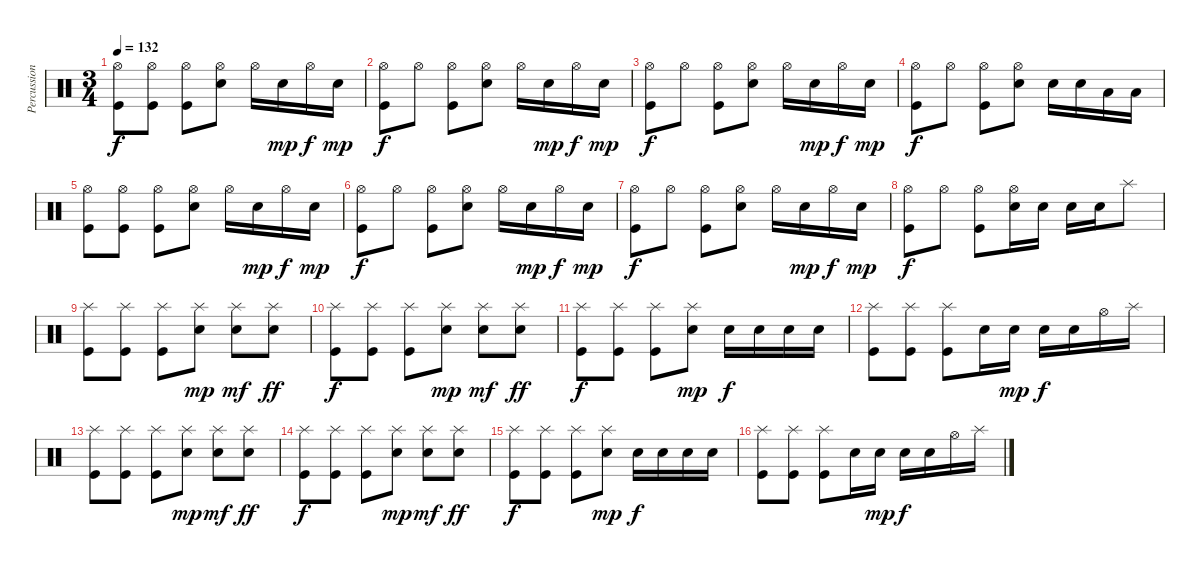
\track ("Percussion" "Percussion") {instrument percussion}
\staff {score}
\articulation defaults
\ts (3 4)
\tempo 132
\clef neutral
\ks c
("Hi-Hat (open)" "Kick (hit)").8{dy f} ("Hi-Hat (open)" "Kick (hit)").8 ("Hi-Hat (open)" "Kick (hit)").8 ("Hi-Hat (open)" "Snare (hit) 2").8 "Hi-Hat (open)".16 "Snare (hit) 2".16{dy mp} "Hi-Hat (open)".16{dy f} "Snare (hit) 2".16{dy mp} |
("Hi-Hat (open)" "Kick (hit)").8{dy f} "Hi-Hat (open)".8 ("Hi-Hat (open)" "Kick (hit)").8 ("Hi-Hat (open)" "Snare (hit) 2").8 "Hi-Hat (open)".16 "Snare (hit) 2".16{dy mp} "Hi-Hat (open)".16{dy f} "Snare (hit) 2".16{dy mp} |
("Hi-Hat (open)" "Kick (hit)").8{dy f} "Hi-Hat (open)".8 ("Hi-Hat (open)" "Kick (hit)").8 ("Hi-Hat (open)" "Snare (hit) 2").8 "Hi-Hat (open)".16 "Snare (hit) 2".16{dy mp} "Hi-Hat (open)".16{dy f} "Snare (hit) 2".16{dy mp} |
("Hi-Hat (open)" "Kick (hit)").8{dy f} "Hi-Hat (open)".8 ("Hi-Hat (open)" "Kick (hit)").8 ("Hi-Hat (open)" "Snare (hit) 2").8 "Snare (hit) 2".16 "Snare (hit) 2".16 "Low Tom (hit)".16 "Low Tom (hit)".16 |
("Hi-Hat (open)" "Kick (hit)").8 ("Hi-Hat (open)" "Kick (hit)").8 ("Hi-Hat (open)" "Kick (hit)").8 ("Hi-Hat (open)" "Snare (hit) 2").8 "Hi-Hat (open)".16 "Snare (hit) 2".16{dy mp} "Hi-Hat (open)".16{dy f} "Snare (hit) 2".16{dy mp} |
("Hi-Hat (open)" "Kick (hit)").8{dy f} "Hi-Hat (open)".8 ("Hi-Hat (open)" "Kick (hit)").8 ("Hi-Hat (open)" "Snare (hit) 2").8 "Hi-Hat (open)".16 "Snare (hit) 2".16{dy mp} "Hi-Hat (open)".16{dy f} "Snare (hit) 2".16{dy mp} |
("Hi-Hat (open)" "Kick (hit)").8{dy f} "Hi-Hat (open)".8 ("Hi-Hat (open)" "Kick (hit)").8 ("Hi-Hat (open)" "Snare (hit) 2").8 "Hi-Hat (open)".16 "Snare (hit) 2".16{dy mp} "Hi-Hat (open)".16{dy f} "Snare (hit) 2".16{dy mp} |
("Hi-Hat (open)" "Kick (hit)").8{dy f} "Hi-Hat (open)".8 ("Hi-Hat (open)" "Kick (hit)").8 ("Hi-Hat (open)" "Snare (hit) 2").16 "Snare (hit) 2".16 "Snare (hit) 2".16 "Snare (hit) 2".16 "Splash (hit)".8 |
("Splash (hit)" "Kick (hit)").8 ("Splash (hit)" "Kick (hit)").8 ("Splash (hit)" "Kick (hit)").8 ("Splash (hit)" "Snare (hit) 2").8{dy mp} ("Splash (hit)" "Snare (hit) 2").8{dy mf} ("Splash (hit)" "Snare (hit) 2").8{dy ff} |
("Splash (hit)" "Kick (hit)").8{dy f} ("Splash (hit)" "Kick (hit)").8 ("Splash (hit)" "Kick (hit)").8 ("Splash (hit)" "Snare (hit) 2").8{dy mp} ("Splash (hit)" "Snare (hit) 2").8{dy mf} ("Splash (hit)" "Snare (hit) 2").8{dy ff} |
("Splash (hit)" "Kick (hit)").8{dy f} ("Splash (hit)" "Kick (hit)").8 ("Splash (hit)" "Kick (hit)").8 ("Splash (hit)" "Snare (hit) 2").8{dy mp} "Snare (hit) 2".16{dy f} "Snare (hit) 2".16 "Snare (hit) 2".16 "Snare (hit) 2".16 |
("Splash (hit)" "Kick (hit)").8 ("Splash (hit)" "Kick (hit)").8 ("Splash (hit)" "Kick (hit)").8 "Snare (hit) 2".16 "Snare (hit) 2".16{dy mp} "Snare (hit) 2".16{dy f} "Snare (hit) 2".16 "Hi-Hat (open)".16 "Splash (hit)".16 |
("Splash (hit)" "Kick (hit)").8 ("Splash (hit)" "Kick (hit)").8 ("Splash (hit)" "Kick (hit)").8 ("Splash (hit)" "Snare (hit) 2").8{dy mp} ("Splash (hit)" "Snare (hit) 2").8{dy mf} ("Splash (hit)" "Snare (hit) 2").8{dy ff} |
("Splash (hit)" "Kick (hit)").8{dy f} ("Splash (hit)" "Kick (hit)").8 ("Splash (hit)" "Kick (hit)").8 ("Splash (hit)" "Snare (hit) 2").8{dy mp} ("Splash (hit)" "Snare (hit) 2").8{dy mf} ("Splash (hit)" "Snare (hit) 2").8{dy ff} |
("Splash (hit)" "Kick (hit)").8{dy f} ("Splash (hit)" "Kick (hit)").8 ("Splash (hit)" "Kick (hit)").8 ("Splash (hit)" "Snare (hit) 2").8{dy mp} "Snare (hit) 2".16{dy f} "Snare (hit) 2".16 "Snare (hit) 2".16 "Snare (hit) 2".16 |
("Splash (hit)" "Kick (hit)").8 ("Splash (hit)" "Kick (hit)").8 ("Splash (hit)" "Kick (hit)").8 "Snare (hit) 2".16 "Snare (hit) 2".16{dy mp} "Snare (hit) 2".16{dy f} "Snare (hit) 2".16 "Hi-Hat (open)".16 "Splash (hit)".16
